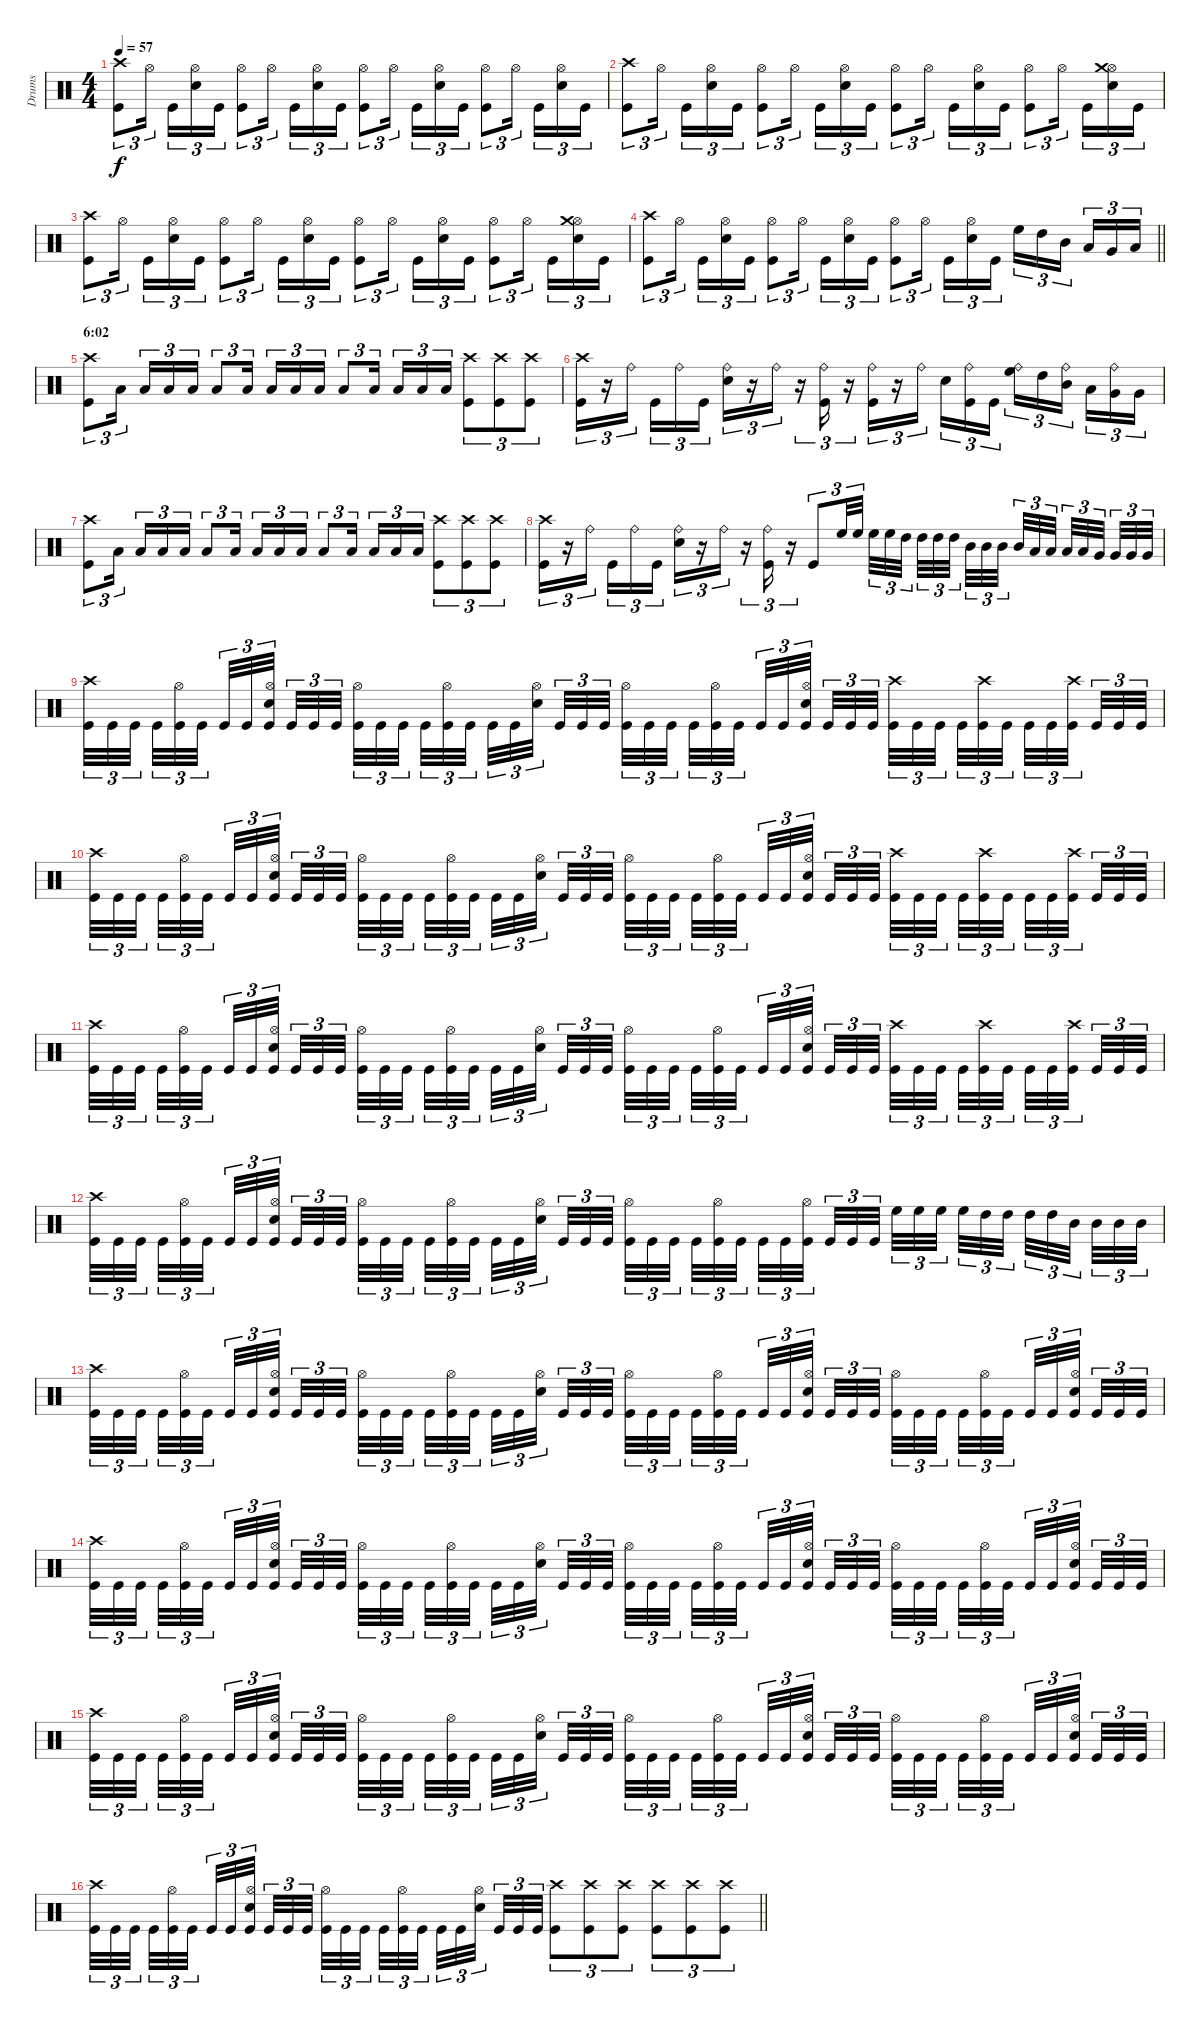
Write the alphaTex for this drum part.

\track ("Drums" "Drums") {instrument percussion}
\staff {score}
\articulation defaults
\ts (4 4)
\tempo 57
\clef neutral
\ks c
("Kick (hit)" "Crash high (hit)").8{tu (3 2) dy f} "Hi-Hat (open)".16{tu (3 2) beam splitsecondary} "Kick (hit)".16{tu (3 2)} ("Snare (hit) 2" "Hi-Hat (open)").16{tu (3 2)} "Kick (hit)".16{tu (3 2)} ("Kick (hit)" "Hi-Hat (open)").8{tu (3 2)} "Hi-Hat (open)".16{tu (3 2) beam splitsecondary} "Kick (hit)".16{tu (3 2)} ("Snare (hit) 2" "Hi-Hat (open)").16{tu (3 2)} "Kick (hit)".16{tu (3 2)} ("Kick (hit)" "Hi-Hat (open)").8{tu (3 2)} "Hi-Hat (open)".16{tu (3 2) beam splitsecondary} "Kick (hit)".16{tu (3 2)} ("Snare (hit) 2" "Hi-Hat (open)").16{tu (3 2)} "Kick (hit)".16{tu (3 2)} ("Kick (hit)" "Hi-Hat (open)").8{tu (3 2)} "Hi-Hat (open)".16{tu (3 2) beam splitsecondary} "Kick (hit)".16{tu (3 2)} ("Snare (hit) 2" "Hi-Hat (open)").16{tu (3 2)} "Kick (hit)".16{tu (3 2)} |
("Kick (hit)" "Crash high (hit)").8{tu (3 2)} "Hi-Hat (open)".16{tu (3 2) beam splitsecondary} "Kick (hit)".16{tu (3 2)} ("Snare (hit) 2" "Hi-Hat (open)").16{tu (3 2)} "Kick (hit)".16{tu (3 2)} ("Kick (hit)" "Hi-Hat (open)").8{tu (3 2)} "Hi-Hat (open)".16{tu (3 2) beam splitsecondary} "Kick (hit)".16{tu (3 2)} ("Snare (hit) 2" "Hi-Hat (open)").16{tu (3 2)} "Kick (hit)".16{tu (3 2)} ("Kick (hit)" "Hi-Hat (open)").8{tu (3 2)} "Hi-Hat (open)".16{tu (3 2) beam splitsecondary} "Kick (hit)".16{tu (3 2)} ("Snare (hit) 2" "Hi-Hat (open)").16{tu (3 2)} "Kick (hit)".16{tu (3 2)} ("Kick (hit)" "Hi-Hat (open)").8{tu (3 2)} "Hi-Hat (open)".16{tu (3 2) beam splitsecondary} "Kick (hit)".16{tu (3 2)} ("Snare (hit) 2" "Hi-Hat (open)" "Crash medium (hit)").16{tu (3 2)} "Kick (hit)".16{tu (3 2)} |
("Kick (hit)" "Crash high (hit)").8{tu (3 2)} "Hi-Hat (open)".16{tu (3 2) beam splitsecondary} "Kick (hit)".16{tu (3 2)} ("Snare (hit) 2" "Hi-Hat (open)").16{tu (3 2)} "Kick (hit)".16{tu (3 2)} ("Kick (hit)" "Hi-Hat (open)").8{tu (3 2)} "Hi-Hat (open)".16{tu (3 2) beam splitsecondary} "Kick (hit)".16{tu (3 2)} ("Snare (hit) 2" "Hi-Hat (open)").16{tu (3 2)} "Kick (hit)".16{tu (3 2)} ("Kick (hit)" "Hi-Hat (open)").8{tu (3 2)} "Hi-Hat (open)".16{tu (3 2) beam splitsecondary} "Kick (hit)".16{tu (3 2)} ("Snare (hit) 2" "Hi-Hat (open)").16{tu (3 2)} "Kick (hit)".16{tu (3 2)} ("Kick (hit)" "Hi-Hat (open)").8{tu (3 2)} "Hi-Hat (open)".16{tu (3 2) beam splitsecondary} "Kick (hit)".16{tu (3 2)} ("Snare (hit) 2" "Hi-Hat (open)" "Crash medium (hit)").16{tu (3 2)} "Kick (hit)".16{tu (3 2)} |
\barLineRight lightlight
("Kick (hit)" "Crash high (hit)").8{tu (3 2)} "Hi-Hat (open)".16{tu (3 2) beam splitsecondary} "Kick (hit)".16{tu (3 2)} ("Snare (hit) 2" "Hi-Hat (open)").16{tu (3 2)} "Kick (hit)".16{tu (3 2)} ("Kick (hit)" "Hi-Hat (open)").8{tu (3 2)} "Hi-Hat (open)".16{tu (3 2) beam splitsecondary} "Kick (hit)".16{tu (3 2)} ("Snare (hit) 2" "Hi-Hat (open)").16{tu (3 2)} "Kick (hit)".16{tu (3 2)} ("Kick (hit)" "Hi-Hat (open)").8{tu (3 2)} "Hi-Hat (open)".16{tu (3 2) beam splitsecondary} "Kick (hit)".16{tu (3 2)} ("Snare (hit) 2" "Hi-Hat (open)").16{tu (3 2)} "Kick (hit)".16{tu (3 2)} "High Floor Tom (hit)".16{tu (3 2)} "High Tom (hit)".16{tu (3 2)} "Mid Tom (hit)".16{tu (3 2) beam splitsecondary} "Low Tom (hit)".16{tu (3 2)} "Very Low Tom (hit)".16{tu (3 2)} "Low Floor Tom (hit)".16{tu (3 2)} |
\section ("" "6:02")
("Kick (hit)" "Crash high (hit)").8{tu (3 2)} "Low Tom (hit)".16{tu (3 2) beam splitsecondary} "Low Tom (hit)".16{tu (3 2)} "Low Tom (hit)".16{tu (3 2)} "Low Tom (hit)".16{tu (3 2)} "Low Tom (hit)".8{tu (3 2)} "Low Tom (hit)".16{tu (3 2) beam splitsecondary} "Low Tom (hit)".16{tu (3 2)} "Low Tom (hit)".16{tu (3 2)} "Low Tom (hit)".16{tu (3 2)} "Low Tom (hit)".8{tu (3 2)} "Low Tom (hit)".16{tu (3 2) beam splitsecondary} "Low Tom (hit)".16{tu (3 2)} "Low Tom (hit)".16{tu (3 2)} "Low Tom (hit)".16{tu (3 2)} ("Crash high (hit)" "Kick (hit)").8{tu (3 2)} ("Crash high (hit)" "Kick (hit)").8{tu (3 2)} ("Crash high (hit)" "Kick (hit)").8{tu (3 2)} |
("Kick (hit)" "Crash high (hit)").16{tu (3 2)} r.16{tu (3 2)} "Ride (bell)".16{tu (3 2) beam splitsecondary} "Kick (hit)".16{tu (3 2)} "Ride (bell)".16{tu (3 2)} "Kick (hit)".16{tu (3 2)} ("Ride (bell)" "Snare (hit) 2").16{tu (3 2)} r.16{tu (3 2)} "Ride (bell)".16{tu (3 2)} r.16{tu (3 2)} ("Ride (bell)" "Kick (hit)").16{tu (3 2)} r.16{tu (3 2)} ("Ride (bell)" "Kick (hit)").16{tu (3 2)} r.16{tu (3 2)} "Ride (bell)".16{tu (3 2) beam splitsecondary} "Snare (hit) 2".16{tu (3 2)} ("Ride (bell)" "Kick (hit)").16{tu (3 2)} "Kick (hit)".16{tu (3 2)} ("Ride (bell)" "High Floor Tom (hit)").16{tu (3 2)} "High Tom (hit)".16{tu (3 2)} ("Ride (bell)" "Mid Tom (hit)").16{tu (3 2) beam splitsecondary} "Low Tom (hit)".16{tu (3 2)} ("Ride (bell)" "Very Low Tom (hit)").16{tu (3 2)} "Very Low Tom (hit)".16{tu (3 2)} |
("Kick (hit)" "Crash high (hit)").8{tu (3 2)} "Low Tom (hit)".16{tu (3 2) beam splitsecondary} "Low Tom (hit)".16{tu (3 2)} "Low Tom (hit)".16{tu (3 2)} "Low Tom (hit)".16{tu (3 2)} "Low Tom (hit)".8{tu (3 2)} "Low Tom (hit)".16{tu (3 2) beam splitsecondary} "Low Tom (hit)".16{tu (3 2)} "Low Tom (hit)".16{tu (3 2)} "Low Tom (hit)".16{tu (3 2)} "Low Tom (hit)".8{tu (3 2)} "Low Tom (hit)".16{tu (3 2) beam splitsecondary} "Low Tom (hit)".16{tu (3 2)} "Low Tom (hit)".16{tu (3 2)} "Low Tom (hit)".16{tu (3 2)} ("Crash high (hit)" "Kick (hit)").8{tu (3 2)} ("Crash high (hit)" "Kick (hit)").8{tu (3 2)} ("Crash high (hit)" "Kick (hit)").8{tu (3 2)} |
("Kick (hit)" "Crash high (hit)").16{tu (3 2)} r.16{tu (3 2)} "Ride (bell)".16{tu (3 2) beam splitsecondary} "Kick (hit)".16{tu (3 2)} "Ride (bell)".16{tu (3 2)} "Kick (hit)".16{tu (3 2)} ("Ride (bell)" "Snare (hit) 2").16{tu (3 2)} r.16{tu (3 2)} "Ride (bell)".16{tu (3 2)} r.16{tu (3 2)} ("Ride (bell)" "Kick (hit)").16{tu (3 2)} r.16{tu (3 2)} "Kick (hit)".8{tu (3 2)} "High Floor Tom (hit)".32{tu (3 2)} "High Floor Tom (hit)".32{tu (3 2) beam splitsecondary} "High Floor Tom (hit)".32{tu (3 2)} "High Floor Tom (hit)".32{tu (3 2)} "High Tom (hit)".32{tu (3 2) beam splitsecondary} "High Tom (hit)".32{tu (3 2)} "High Tom (hit)".32{tu (3 2)} "High Tom (hit)".32{tu (3 2)} "Mid Tom (hit)".32{tu (3 2)} "Mid Tom (hit)".32{tu (3 2)} "Mid Tom (hit)".32{tu (3 2) beam splitsecondary} "Mid Tom (hit)".32{tu (3 2)} "Low Tom (hit)".32{tu (3 2)} "Low Tom (hit)".32{tu (3 2) beam splitsecondary} "Low Tom (hit)".32{tu (3 2)} "Low Tom (hit)".32{tu (3 2)} "Very Low Tom (hit)".32{tu (3 2) beam splitsecondary} "Very Low Tom (hit)".32{tu (3 2)} "Very Low Tom (hit)".32{tu (3 2)} "Very Low Tom (hit)".32{tu (3 2)} |
("Kick (hit)" "Crash high (hit)").32{tu (3 2)} "Kick (hit)".32{tu (3 2)} "Kick (hit)".32{tu (3 2) beam splitsecondary} "Kick (hit)".32{tu (3 2)} ("Kick (hit)" "Hi-Hat (open)").32{tu (3 2)} "Kick (hit)".32{tu (3 2) beam splitsecondary} "Kick (hit)".32{tu (3 2)} "Kick (hit)".32{tu (3 2)} ("Kick (hit)" "Snare (hit) 2" "Hi-Hat (open)").32{tu (3 2) beam splitsecondary} "Kick (hit)".32{tu (3 2)} "Kick (hit)".32{tu (3 2)} "Kick (hit)".32{tu (3 2)} ("Kick (hit)" "Hi-Hat (open)").32{tu (3 2)} "Kick (hit)".32{tu (3 2)} "Kick (hit)".32{tu (3 2) beam splitsecondary} "Kick (hit)".32{tu (3 2)} ("Kick (hit)" "Hi-Hat (open)").32{tu (3 2)} "Kick (hit)".32{tu (3 2) beam splitsecondary} "Kick (hit)".32{tu (3 2)} "Kick (hit)".32{tu (3 2)} ("Snare (hit) 2" "Hi-Hat (open)").32{tu (3 2) beam splitsecondary} "Kick (hit)".32{tu (3 2)} "Kick (hit)".32{tu (3 2)} "Kick (hit)".32{tu (3 2)} ("Kick (hit)" "Hi-Hat (open)").32{tu (3 2)} "Kick (hit)".32{tu (3 2)} "Kick (hit)".32{tu (3 2) beam splitsecondary} "Kick (hit)".32{tu (3 2)} ("Kick (hit)" "Hi-Hat (open)").32{tu (3 2)} "Kick (hit)".32{tu (3 2) beam splitsecondary} "Kick (hit)".32{tu (3 2)} "Kick (hit)".32{tu (3 2)} ("Kick (hit)" "Snare (hit) 2" "Hi-Hat (open)").32{tu (3 2) beam splitsecondary} "Kick (hit)".32{tu (3 2)} "Kick (hit)".32{tu (3 2)} "Kick (hit)".32{tu (3 2)} ("Crash high (hit)" "Kick (hit)").32{tu (3 2)} "Kick (hit)".32{tu (3 2)} "Kick (hit)".32{tu (3 2) beam splitsecondary} "Kick (hit)".32{tu (3 2)} ("Kick (hit)" "Crash high (hit)").32{tu (3 2)} "Kick (hit)".32{tu (3 2) beam splitsecondary} "Kick (hit)".32{tu (3 2)} "Kick (hit)".32{tu (3 2)} ("Kick (hit)" "Crash high (hit)").32{tu (3 2) beam splitsecondary} "Kick (hit)".32{tu (3 2)} "Kick (hit)".32{tu (3 2)} "Kick (hit)".32{tu (3 2)} |
("Kick (hit)" "Crash high (hit)").32{tu (3 2)} "Kick (hit)".32{tu (3 2)} "Kick (hit)".32{tu (3 2) beam splitsecondary} "Kick (hit)".32{tu (3 2)} ("Kick (hit)" "Hi-Hat (open)").32{tu (3 2)} "Kick (hit)".32{tu (3 2) beam splitsecondary} "Kick (hit)".32{tu (3 2)} "Kick (hit)".32{tu (3 2)} ("Kick (hit)" "Snare (hit) 2" "Hi-Hat (open)").32{tu (3 2) beam splitsecondary} "Kick (hit)".32{tu (3 2)} "Kick (hit)".32{tu (3 2)} "Kick (hit)".32{tu (3 2)} ("Kick (hit)" "Hi-Hat (open)").32{tu (3 2)} "Kick (hit)".32{tu (3 2)} "Kick (hit)".32{tu (3 2) beam splitsecondary} "Kick (hit)".32{tu (3 2)} ("Kick (hit)" "Hi-Hat (open)").32{tu (3 2)} "Kick (hit)".32{tu (3 2) beam splitsecondary} "Kick (hit)".32{tu (3 2)} "Kick (hit)".32{tu (3 2)} ("Snare (hit) 2" "Hi-Hat (open)").32{tu (3 2) beam splitsecondary} "Kick (hit)".32{tu (3 2)} "Kick (hit)".32{tu (3 2)} "Kick (hit)".32{tu (3 2)} ("Kick (hit)" "Hi-Hat (open)").32{tu (3 2)} "Kick (hit)".32{tu (3 2)} "Kick (hit)".32{tu (3 2) beam splitsecondary} "Kick (hit)".32{tu (3 2)} ("Kick (hit)" "Hi-Hat (open)").32{tu (3 2)} "Kick (hit)".32{tu (3 2) beam splitsecondary} "Kick (hit)".32{tu (3 2)} "Kick (hit)".32{tu (3 2)} ("Kick (hit)" "Snare (hit) 2" "Hi-Hat (open)").32{tu (3 2) beam splitsecondary} "Kick (hit)".32{tu (3 2)} "Kick (hit)".32{tu (3 2)} "Kick (hit)".32{tu (3 2)} ("Crash high (hit)" "Kick (hit)").32{tu (3 2)} "Kick (hit)".32{tu (3 2)} "Kick (hit)".32{tu (3 2) beam splitsecondary} "Kick (hit)".32{tu (3 2)} ("Kick (hit)" "Crash high (hit)").32{tu (3 2)} "Kick (hit)".32{tu (3 2) beam splitsecondary} "Kick (hit)".32{tu (3 2)} "Kick (hit)".32{tu (3 2)} ("Kick (hit)" "Crash high (hit)").32{tu (3 2) beam splitsecondary} "Kick (hit)".32{tu (3 2)} "Kick (hit)".32{tu (3 2)} "Kick (hit)".32{tu (3 2)} |
("Kick (hit)" "Crash high (hit)").32{tu (3 2)} "Kick (hit)".32{tu (3 2)} "Kick (hit)".32{tu (3 2) beam splitsecondary} "Kick (hit)".32{tu (3 2)} ("Kick (hit)" "Hi-Hat (open)").32{tu (3 2)} "Kick (hit)".32{tu (3 2) beam splitsecondary} "Kick (hit)".32{tu (3 2)} "Kick (hit)".32{tu (3 2)} ("Kick (hit)" "Snare (hit) 2" "Hi-Hat (open)").32{tu (3 2) beam splitsecondary} "Kick (hit)".32{tu (3 2)} "Kick (hit)".32{tu (3 2)} "Kick (hit)".32{tu (3 2)} ("Kick (hit)" "Hi-Hat (open)").32{tu (3 2)} "Kick (hit)".32{tu (3 2)} "Kick (hit)".32{tu (3 2) beam splitsecondary} "Kick (hit)".32{tu (3 2)} ("Kick (hit)" "Hi-Hat (open)").32{tu (3 2)} "Kick (hit)".32{tu (3 2) beam splitsecondary} "Kick (hit)".32{tu (3 2)} "Kick (hit)".32{tu (3 2)} ("Snare (hit) 2" "Hi-Hat (open)").32{tu (3 2) beam splitsecondary} "Kick (hit)".32{tu (3 2)} "Kick (hit)".32{tu (3 2)} "Kick (hit)".32{tu (3 2)} ("Kick (hit)" "Hi-Hat (open)").32{tu (3 2)} "Kick (hit)".32{tu (3 2)} "Kick (hit)".32{tu (3 2) beam splitsecondary} "Kick (hit)".32{tu (3 2)} ("Kick (hit)" "Hi-Hat (open)").32{tu (3 2)} "Kick (hit)".32{tu (3 2) beam splitsecondary} "Kick (hit)".32{tu (3 2)} "Kick (hit)".32{tu (3 2)} ("Kick (hit)" "Snare (hit) 2" "Hi-Hat (open)").32{tu (3 2) beam splitsecondary} "Kick (hit)".32{tu (3 2)} "Kick (hit)".32{tu (3 2)} "Kick (hit)".32{tu (3 2)} ("Crash high (hit)" "Kick (hit)").32{tu (3 2)} "Kick (hit)".32{tu (3 2)} "Kick (hit)".32{tu (3 2) beam splitsecondary} "Kick (hit)".32{tu (3 2)} ("Kick (hit)" "Crash high (hit)").32{tu (3 2)} "Kick (hit)".32{tu (3 2) beam splitsecondary} "Kick (hit)".32{tu (3 2)} "Kick (hit)".32{tu (3 2)} ("Kick (hit)" "Crash high (hit)").32{tu (3 2) beam splitsecondary} "Kick (hit)".32{tu (3 2)} "Kick (hit)".32{tu (3 2)} "Kick (hit)".32{tu (3 2)} |
("Kick (hit)" "Crash high (hit)").32{tu (3 2)} "Kick (hit)".32{tu (3 2)} "Kick (hit)".32{tu (3 2) beam splitsecondary} "Kick (hit)".32{tu (3 2)} ("Kick (hit)" "Hi-Hat (open)").32{tu (3 2)} "Kick (hit)".32{tu (3 2) beam splitsecondary} "Kick (hit)".32{tu (3 2)} "Kick (hit)".32{tu (3 2)} ("Kick (hit)" "Snare (hit) 2" "Hi-Hat (open)").32{tu (3 2) beam splitsecondary} "Kick (hit)".32{tu (3 2)} "Kick (hit)".32{tu (3 2)} "Kick (hit)".32{tu (3 2)} ("Kick (hit)" "Hi-Hat (open)").32{tu (3 2)} "Kick (hit)".32{tu (3 2)} "Kick (hit)".32{tu (3 2) beam splitsecondary} "Kick (hit)".32{tu (3 2)} ("Kick (hit)" "Hi-Hat (open)").32{tu (3 2)} "Kick (hit)".32{tu (3 2) beam splitsecondary} "Kick (hit)".32{tu (3 2)} "Kick (hit)".32{tu (3 2)} ("Snare (hit) 2" "Hi-Hat (open)").32{tu (3 2) beam splitsecondary} "Kick (hit)".32{tu (3 2)} "Kick (hit)".32{tu (3 2)} "Kick (hit)".32{tu (3 2)} ("Kick (hit)" "Hi-Hat (open)").32{tu (3 2)} "Kick (hit)".32{tu (3 2)} "Kick (hit)".32{tu (3 2) beam splitsecondary} "Kick (hit)".32{tu (3 2)} ("Kick (hit)" "Hi-Hat (open)").32{tu (3 2)} "Kick (hit)".32{tu (3 2) beam splitsecondary} "Kick (hit)".32{tu (3 2)} "Kick (hit)".32{tu (3 2)} ("Kick (hit)" "Hi-Hat (open)").32{tu (3 2) beam splitsecondary} "Kick (hit)".32{tu (3 2)} "Kick (hit)".32{tu (3 2)} "Kick (hit)".32{tu (3 2)} "High Floor Tom (hit)".32{tu (3 2)} "High Floor Tom (hit)".32{tu (3 2)} "High Floor Tom (hit)".32{tu (3 2) beam splitsecondary} "High Floor Tom (hit)".32{tu (3 2)} "High Tom (hit)".32{tu (3 2)} "High Tom (hit)".32{tu (3 2) beam splitsecondary} "High Tom (hit)".32{tu (3 2)} "High Tom (hit)".32{tu (3 2)} "Mid Tom (hit)".32{tu (3 2) beam splitsecondary} "Mid Tom (hit)".32{tu (3 2)} "Mid Tom (hit)".32{tu (3 2)} "Mid Tom (hit)".32{tu (3 2)} |
("Kick (hit)" "Crash high (hit)").32{tu (3 2)} "Kick (hit)".32{tu (3 2)} "Kick (hit)".32{tu (3 2) beam splitsecondary} "Kick (hit)".32{tu (3 2)} ("Kick (hit)" "Hi-Hat (open)").32{tu (3 2)} "Kick (hit)".32{tu (3 2) beam splitsecondary} "Kick (hit)".32{tu (3 2)} "Kick (hit)".32{tu (3 2)} ("Kick (hit)" "Snare (hit) 2" "Hi-Hat (open)").32{tu (3 2) beam splitsecondary} "Kick (hit)".32{tu (3 2)} "Kick (hit)".32{tu (3 2)} "Kick (hit)".32{tu (3 2)} ("Kick (hit)" "Hi-Hat (open)").32{tu (3 2)} "Kick (hit)".32{tu (3 2)} "Kick (hit)".32{tu (3 2) beam splitsecondary} "Kick (hit)".32{tu (3 2)} ("Kick (hit)" "Hi-Hat (open)").32{tu (3 2)} "Kick (hit)".32{tu (3 2) beam splitsecondary} "Kick (hit)".32{tu (3 2)} "Kick (hit)".32{tu (3 2)} ("Snare (hit) 2" "Hi-Hat (open)").32{tu (3 2) beam splitsecondary} "Kick (hit)".32{tu (3 2)} "Kick (hit)".32{tu (3 2)} "Kick (hit)".32{tu (3 2)} ("Kick (hit)" "Hi-Hat (open)").32{tu (3 2)} "Kick (hit)".32{tu (3 2)} "Kick (hit)".32{tu (3 2) beam splitsecondary} "Kick (hit)".32{tu (3 2)} ("Kick (hit)" "Hi-Hat (open)").32{tu (3 2)} "Kick (hit)".32{tu (3 2) beam splitsecondary} "Kick (hit)".32{tu (3 2)} "Kick (hit)".32{tu (3 2)} ("Kick (hit)" "Snare (hit) 2" "Hi-Hat (open)").32{tu (3 2) beam splitsecondary} "Kick (hit)".32{tu (3 2)} "Kick (hit)".32{tu (3 2)} "Kick (hit)".32{tu (3 2)} ("Hi-Hat (open)" "Kick (hit)").32{tu (3 2)} "Kick (hit)".32{tu (3 2)} "Kick (hit)".32{tu (3 2) beam splitsecondary} "Kick (hit)".32{tu (3 2)} ("Kick (hit)" "Hi-Hat (open)").32{tu (3 2)} "Kick (hit)".32{tu (3 2) beam splitsecondary} "Kick (hit)".32{tu (3 2)} "Kick (hit)".32{tu (3 2)} ("Kick (hit)" "Snare (hit) 2" "Hi-Hat (open)").32{tu (3 2) beam splitsecondary} "Kick (hit)".32{tu (3 2)} "Kick (hit)".32{tu (3 2)} "Kick (hit)".32{tu (3 2)} |
("Kick (hit)" "Crash high (hit)").32{tu (3 2)} "Kick (hit)".32{tu (3 2)} "Kick (hit)".32{tu (3 2) beam splitsecondary} "Kick (hit)".32{tu (3 2)} ("Kick (hit)" "Hi-Hat (open)").32{tu (3 2)} "Kick (hit)".32{tu (3 2) beam splitsecondary} "Kick (hit)".32{tu (3 2)} "Kick (hit)".32{tu (3 2)} ("Kick (hit)" "Snare (hit) 2" "Hi-Hat (open)").32{tu (3 2) beam splitsecondary} "Kick (hit)".32{tu (3 2)} "Kick (hit)".32{tu (3 2)} "Kick (hit)".32{tu (3 2)} ("Kick (hit)" "Hi-Hat (open)").32{tu (3 2)} "Kick (hit)".32{tu (3 2)} "Kick (hit)".32{tu (3 2) beam splitsecondary} "Kick (hit)".32{tu (3 2)} ("Kick (hit)" "Hi-Hat (open)").32{tu (3 2)} "Kick (hit)".32{tu (3 2) beam splitsecondary} "Kick (hit)".32{tu (3 2)} "Kick (hit)".32{tu (3 2)} ("Snare (hit) 2" "Hi-Hat (open)").32{tu (3 2) beam splitsecondary} "Kick (hit)".32{tu (3 2)} "Kick (hit)".32{tu (3 2)} "Kick (hit)".32{tu (3 2)} ("Kick (hit)" "Hi-Hat (open)").32{tu (3 2)} "Kick (hit)".32{tu (3 2)} "Kick (hit)".32{tu (3 2) beam splitsecondary} "Kick (hit)".32{tu (3 2)} ("Kick (hit)" "Hi-Hat (open)").32{tu (3 2)} "Kick (hit)".32{tu (3 2) beam splitsecondary} "Kick (hit)".32{tu (3 2)} "Kick (hit)".32{tu (3 2)} ("Kick (hit)" "Snare (hit) 2" "Hi-Hat (open)").32{tu (3 2) beam splitsecondary} "Kick (hit)".32{tu (3 2)} "Kick (hit)".32{tu (3 2)} "Kick (hit)".32{tu (3 2)} ("Hi-Hat (open)" "Kick (hit)").32{tu (3 2)} "Kick (hit)".32{tu (3 2)} "Kick (hit)".32{tu (3 2) beam splitsecondary} "Kick (hit)".32{tu (3 2)} ("Kick (hit)" "Hi-Hat (open)").32{tu (3 2)} "Kick (hit)".32{tu (3 2) beam splitsecondary} "Kick (hit)".32{tu (3 2)} "Kick (hit)".32{tu (3 2)} ("Kick (hit)" "Snare (hit) 2" "Hi-Hat (open)").32{tu (3 2) beam splitsecondary} "Kick (hit)".32{tu (3 2)} "Kick (hit)".32{tu (3 2)} "Kick (hit)".32{tu (3 2)} |
("Kick (hit)" "Crash high (hit)").32{tu (3 2)} "Kick (hit)".32{tu (3 2)} "Kick (hit)".32{tu (3 2) beam splitsecondary} "Kick (hit)".32{tu (3 2)} ("Kick (hit)" "Hi-Hat (open)").32{tu (3 2)} "Kick (hit)".32{tu (3 2) beam splitsecondary} "Kick (hit)".32{tu (3 2)} "Kick (hit)".32{tu (3 2)} ("Kick (hit)" "Snare (hit) 2" "Hi-Hat (open)").32{tu (3 2) beam splitsecondary} "Kick (hit)".32{tu (3 2)} "Kick (hit)".32{tu (3 2)} "Kick (hit)".32{tu (3 2)} ("Kick (hit)" "Hi-Hat (open)").32{tu (3 2)} "Kick (hit)".32{tu (3 2)} "Kick (hit)".32{tu (3 2) beam splitsecondary} "Kick (hit)".32{tu (3 2)} ("Kick (hit)" "Hi-Hat (open)").32{tu (3 2)} "Kick (hit)".32{tu (3 2) beam splitsecondary} "Kick (hit)".32{tu (3 2)} "Kick (hit)".32{tu (3 2)} ("Snare (hit) 2" "Hi-Hat (open)").32{tu (3 2) beam splitsecondary} "Kick (hit)".32{tu (3 2)} "Kick (hit)".32{tu (3 2)} "Kick (hit)".32{tu (3 2)} ("Kick (hit)" "Hi-Hat (open)").32{tu (3 2)} "Kick (hit)".32{tu (3 2)} "Kick (hit)".32{tu (3 2) beam splitsecondary} "Kick (hit)".32{tu (3 2)} ("Kick (hit)" "Hi-Hat (open)").32{tu (3 2)} "Kick (hit)".32{tu (3 2) beam splitsecondary} "Kick (hit)".32{tu (3 2)} "Kick (hit)".32{tu (3 2)} ("Kick (hit)" "Snare (hit) 2" "Hi-Hat (open)").32{tu (3 2) beam splitsecondary} "Kick (hit)".32{tu (3 2)} "Kick (hit)".32{tu (3 2)} "Kick (hit)".32{tu (3 2)} ("Hi-Hat (open)" "Kick (hit)").32{tu (3 2)} "Kick (hit)".32{tu (3 2)} "Kick (hit)".32{tu (3 2) beam splitsecondary} "Kick (hit)".32{tu (3 2)} ("Kick (hit)" "Hi-Hat (open)").32{tu (3 2)} "Kick (hit)".32{tu (3 2) beam splitsecondary} "Kick (hit)".32{tu (3 2)} "Kick (hit)".32{tu (3 2)} ("Kick (hit)" "Snare (hit) 2" "Hi-Hat (open)").32{tu (3 2) beam splitsecondary} "Kick (hit)".32{tu (3 2)} "Kick (hit)".32{tu (3 2)} "Kick (hit)".32{tu (3 2)} |
\barLineRight lightlight
("Kick (hit)" "Crash high (hit)").32{tu (3 2)} "Kick (hit)".32{tu (3 2)} "Kick (hit)".32{tu (3 2) beam splitsecondary} "Kick (hit)".32{tu (3 2)} ("Kick (hit)" "Hi-Hat (open)").32{tu (3 2)} "Kick (hit)".32{tu (3 2) beam splitsecondary} "Kick (hit)".32{tu (3 2)} "Kick (hit)".32{tu (3 2)} ("Kick (hit)" "Snare (hit) 2" "Hi-Hat (open)").32{tu (3 2) beam splitsecondary} "Kick (hit)".32{tu (3 2)} "Kick (hit)".32{tu (3 2)} "Kick (hit)".32{tu (3 2)} ("Kick (hit)" "Hi-Hat (open)").32{tu (3 2)} "Kick (hit)".32{tu (3 2)} "Kick (hit)".32{tu (3 2) beam splitsecondary} "Kick (hit)".32{tu (3 2)} ("Kick (hit)" "Hi-Hat (open)").32{tu (3 2)} "Kick (hit)".32{tu (3 2) beam splitsecondary} "Kick (hit)".32{tu (3 2)} "Kick (hit)".32{tu (3 2)} ("Snare (hit) 2" "Hi-Hat (open)").32{tu (3 2) beam splitsecondary} "Kick (hit)".32{tu (3 2)} "Kick (hit)".32{tu (3 2)} "Kick (hit)".32{tu (3 2)} ("Crash high (hit)" "Kick (hit)").8{tu (3 2)} ("Crash high (hit)" "Kick (hit)").8{tu (3 2)} ("Crash high (hit)" "Kick (hit)").8{tu (3 2)} ("Crash high (hit)" "Kick (hit)").8{tu (3 2)} ("Crash high (hit)" "Kick (hit)").8{tu (3 2)} ("Crash high (hit)" "Kick (hit)").8{tu (3 2)}
